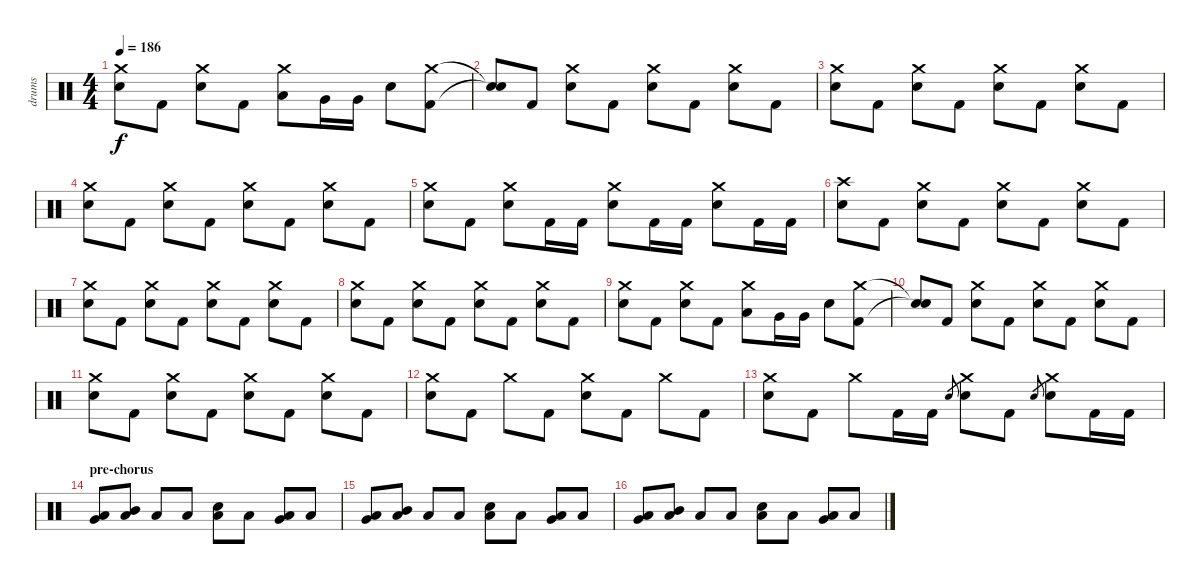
\track ("drums" "drums") {instrument percussion}
\staff {score}
\articulation defaults
\ts (4 4)
\tempo 186
\clef neutral
\ks c
("Crash medium (hit)" "Electric Snare (hit)").8{dy f} "Kick (hit) 2".8 ("Crash medium (hit)" "Electric Snare (hit)").8 "Kick (hit) 2".8 ("Crash medium (hit)" "Low Tom (hit)").8 "Very Low Tom (hit)".16 "Very Low Tom (hit)".16 "Electric Snare (hit)".8 ("Crash medium (hit)" "Kick (hit) 2").8 |
("Snare (hit)"{t} "Snare (hit)"{t}).8 "Kick (hit) 2".8 ("Crash medium (hit)" "Electric Snare (hit)").8 "Kick (hit) 2".8 ("Crash medium (hit)" "Electric Snare (hit)").8 "Kick (hit) 2".8 ("Crash medium (hit)" "Electric Snare (hit)").8 "Kick (hit) 2".8 |
("Crash medium (hit)" "Electric Snare (hit)").8 "Kick (hit) 2".8 ("Crash medium (hit)" "Electric Snare (hit)").8 "Kick (hit) 2".8 ("Crash medium (hit)" "Electric Snare (hit)").8 "Kick (hit) 2".8 ("Crash medium (hit)" "Electric Snare (hit)").8 "Kick (hit) 2".8 |
("Crash medium (hit)" "Electric Snare (hit)").8 "Kick (hit) 2".8 ("Crash medium (hit)" "Electric Snare (hit)").8 "Kick (hit) 2".8 ("Crash medium (hit)" "Electric Snare (hit)").8 "Kick (hit) 2".8 ("Crash medium (hit)" "Electric Snare (hit)").8 "Kick (hit) 2".8 |
("Crash medium (hit)" "Electric Snare (hit)").8 "Kick (hit) 2".8 ("Crash medium (hit)" "Electric Snare (hit)").8 "Kick (hit) 2".16 "Kick (hit) 2".16 ("Crash medium (hit)" "Electric Snare (hit)").8 "Kick (hit) 2".16 "Kick (hit) 2".16 ("Crash medium (hit)" "Electric Snare (hit)").8 "Kick (hit) 2".16 "Kick (hit) 2".16 |
("Crash high (hit)" "Electric Snare (hit)").8 "Kick (hit) 2".8 ("Crash medium (hit)" "Electric Snare (hit)").8 "Kick (hit) 2".8 ("Crash medium (hit)" "Electric Snare (hit)").8 "Kick (hit) 2".8 ("Crash medium (hit)" "Electric Snare (hit)").8 "Kick (hit) 2".8 |
("Crash medium (hit)" "Electric Snare (hit)").8 "Kick (hit) 2".8 ("Crash medium (hit)" "Electric Snare (hit)").8 "Kick (hit) 2".8 ("Crash medium (hit)" "Electric Snare (hit)").8 "Kick (hit) 2".8 ("Crash medium (hit)" "Electric Snare (hit)").8 "Kick (hit) 2".8 |
("Crash medium (hit)" "Electric Snare (hit)").8 "Kick (hit) 2".8 ("Crash medium (hit)" "Electric Snare (hit)").8 "Kick (hit) 2".8 ("Crash medium (hit)" "Electric Snare (hit)").8 "Kick (hit) 2".8 ("Crash medium (hit)" "Electric Snare (hit)").8 "Kick (hit) 2".8 |
("Crash medium (hit)" "Electric Snare (hit)").8 "Kick (hit) 2".8 ("Crash medium (hit)" "Electric Snare (hit)").8 "Kick (hit) 2".8 ("Crash medium (hit)" "Low Tom (hit)").8 "Very Low Tom (hit)".16 "Very Low Tom (hit)".16 "Electric Snare (hit)".8 ("Crash medium (hit)" "Kick (hit) 2").8 |
("Snare (hit)"{t} "Snare (hit)"{t}).8 "Kick (hit) 2".8 ("Crash medium (hit)" "Electric Snare (hit)").8 "Kick (hit) 2".8 ("Crash medium (hit)" "Electric Snare (hit)").8 "Kick (hit) 2".8 ("Crash medium (hit)" "Electric Snare (hit)").8 "Kick (hit) 2".8 |
("Crash medium (hit)" "Electric Snare (hit)").8 "Kick (hit) 2".8 ("Crash medium (hit)" "Electric Snare (hit)").8 "Kick (hit) 2".8 ("Crash medium (hit)" "Electric Snare (hit)").8 "Kick (hit) 2".8 ("Crash medium (hit)" "Electric Snare (hit)").8 "Kick (hit) 2".8 |
("Crash medium (hit)" "Electric Snare (hit)").8 "Kick (hit) 2".8 "Crash medium (hit)".8 "Kick (hit) 2".8 ("Crash medium (hit)" "Electric Snare (hit)").8 "Kick (hit) 2".8 "Crash medium (hit)".8 "Kick (hit) 2".8 |
("Crash medium (hit)" "Electric Snare (hit)").8 "Kick (hit) 2".8 "Crash medium (hit)".8 "Kick (hit) 2".16 "Kick (hit) 2".16 "Electric Snare (hit)".8{gr} ("Crash medium (hit)" "Electric Snare (hit)").8 "Kick (hit) 2".8 "Electric Snare (hit)".8{gr} ("Crash medium (hit)" "Electric Snare (hit)").8 "Kick (hit) 2".16 "Kick (hit) 2".16 |
\section ("" "pre-chorus")
("Low Tom (hit)" "Very Low Tom (hit)").8 ("Mid Tom (hit)" "Low Tom (hit)").8 "Low Tom (hit)".8 "Low Floor Tom (hit)".8 ("Low Tom (hit)" "Electric Snare (hit)").8 "Low Floor Tom (hit)".8 ("Low Tom (hit)" "Very Low Tom (hit)").8 "Low Tom (hit)".8 |
("Low Tom (hit)" "Very Low Tom (hit)").8 ("Mid Tom (hit)" "Low Tom (hit)").8 "Low Tom (hit)".8 "Low Floor Tom (hit)".8 ("Low Tom (hit)" "Electric Snare (hit)").8 "Low Floor Tom (hit)".8 ("Low Tom (hit)" "Very Low Tom (hit)").8 "Low Tom (hit)".8 |
("Low Tom (hit)" "Very Low Tom (hit)").8 ("Mid Tom (hit)" "Low Tom (hit)").8 "Low Tom (hit)".8 "Low Floor Tom (hit)".8 ("Low Tom (hit)" "Electric Snare (hit)").8 "Low Floor Tom (hit)".8 ("Low Tom (hit)" "Very Low Tom (hit)").8 "Low Tom (hit)".8
